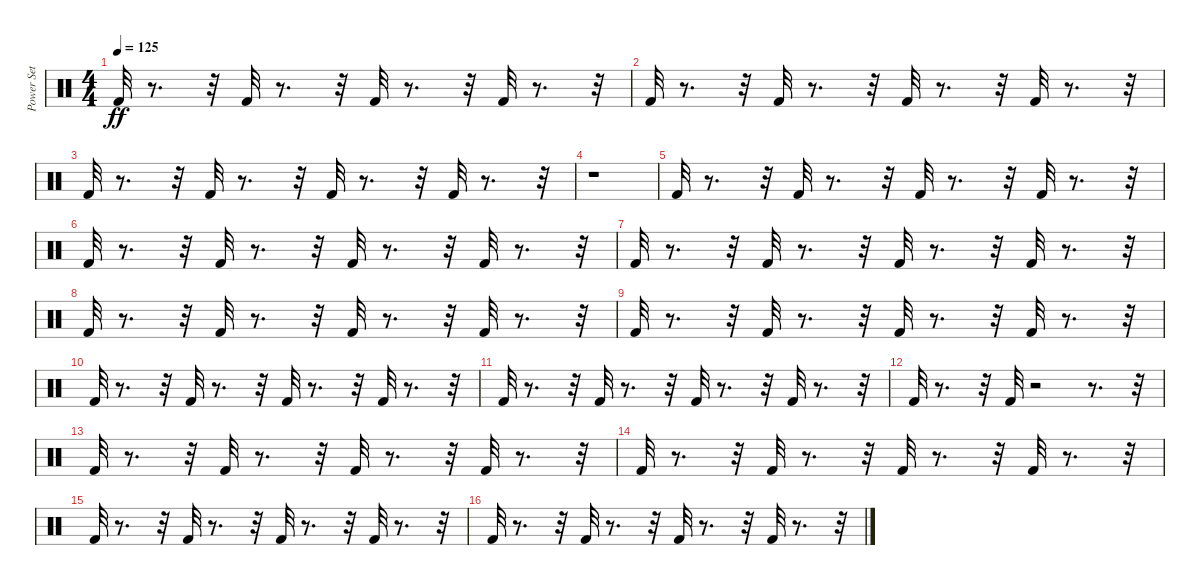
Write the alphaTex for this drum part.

\track ("Power Set" "Power Set") {instrument percussion}
\staff {score}
\articulation defaults
\ts (4 4)
\tempo 125
\clef neutral
\ks c "Kick (hit) 2".32{dy ff}
r.8{d} r.32 "Kick (hit) 2".32 r.8{d} r.32 "Kick (hit) 2".32 r.8{d} r.32 "Kick (hit) 2".32 r.8{d} r.32 |
"Kick (hit) 2".32 r.8{d} r.32 "Kick (hit) 2".32 r.8{d} r.32 "Kick (hit) 2".32 r.8{d} r.32 "Kick (hit) 2".32 r.8{d} r.32 |
"Kick (hit) 2".32 r.8{d} r.32 "Kick (hit) 2".32 r.8{d} r.32 "Kick (hit) 2".32 r.8{d} r.32 "Kick (hit) 2".32 r.8{d} r.32 |
r.1 |
"Kick (hit) 2".32 r.8{d} r.32 "Kick (hit) 2".32 r.8{d} r.32 "Kick (hit) 2".32 r.8{d} r.32 "Kick (hit) 2".32 r.8{d} r.32 |
"Kick (hit) 2".32 r.8{d} r.32 "Kick (hit) 2".32 r.8{d} r.32 "Kick (hit) 2".32 r.8{d} r.32 "Kick (hit) 2".32 r.8{d} r.32 |
"Kick (hit) 2".32 r.8{d} r.32 "Kick (hit) 2".32 r.8{d} r.32 "Kick (hit) 2".32 r.8{d} r.32 "Kick (hit) 2".32 r.8{d} r.32 |
"Kick (hit) 2".32 r.8{d} r.32 "Kick (hit) 2".32 r.8{d} r.32 "Kick (hit) 2".32 r.8{d} r.32 "Kick (hit) 2".32 r.8{d} r.32 |
"Kick (hit) 2".32 r.8{d} r.32 "Kick (hit) 2".32 r.8{d} r.32 "Kick (hit) 2".32 r.8{d} r.32 "Kick (hit) 2".32 r.8{d} r.32 |
"Kick (hit) 2".32 r.8{d} r.32 "Kick (hit) 2".32 r.8{d} r.32 "Kick (hit) 2".32 r.8{d} r.32 "Kick (hit) 2".32 r.8{d} r.32 |
"Kick (hit) 2".32 r.8{d} r.32 "Kick (hit) 2".32 r.8{d} r.32 "Kick (hit) 2".32 r.8{d} r.32 "Kick (hit) 2".32 r.8{d} r.32 |
"Kick (hit) 2".32 r.8{d} r.32 "Kick (hit) 2".32 r.2 r.8{d} r.32 |
"Kick (hit) 2".32 r.8{d} r.32 "Kick (hit) 2".32 r.8{d} r.32 "Kick (hit) 2".32 r.8{d} r.32 "Kick (hit) 2".32 r.8{d} r.32 |
"Kick (hit) 2".32 r.8{d} r.32 "Kick (hit) 2".32 r.8{d} r.32 "Kick (hit) 2".32 r.8{d} r.32 "Kick (hit) 2".32 r.8{d} r.32 |
"Kick (hit) 2".32 r.8{d} r.32 "Kick (hit) 2".32 r.8{d} r.32 "Kick (hit) 2".32 r.8{d} r.32 "Kick (hit) 2".32 r.8{d} r.32 |
"Kick (hit) 2".32 r.8{d} r.32 "Kick (hit) 2".32 r.8{d} r.32 "Kick (hit) 2".32 r.8{d} r.32 "Kick (hit) 2".32 r.8{d} r.32
